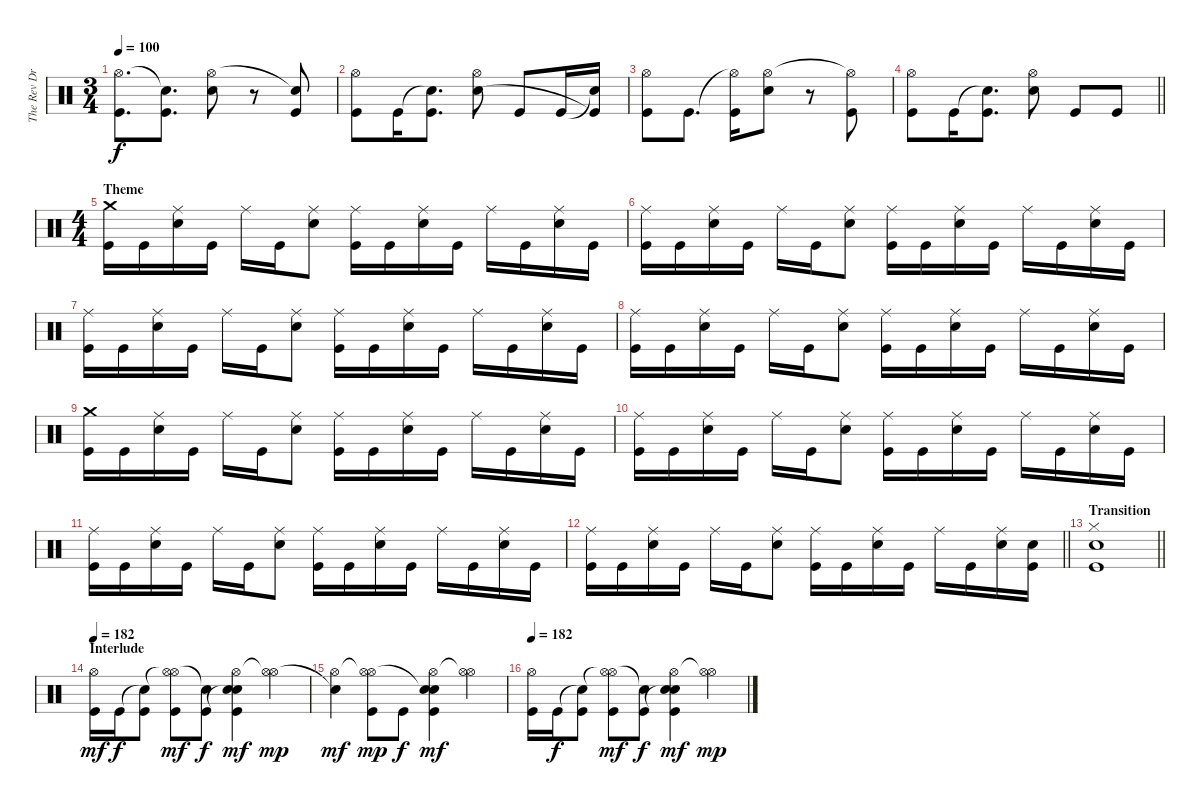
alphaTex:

\track ("The Rev Drums" "The Rev Dr") {instrument percussion}
\staff {score}
\articulation defaults
\ts (3 4)
\tempo 100
\clef neutral
\ks c
("Hi-Hat (open)" "Kick (hit)").8{d dy f} ("Snare (hit)"{t} "Kick (hit)").8{d} ("Hi-Hat (open)" "Electric Snare (hit)").8 r.8 ("Snare (hit)"{t} "Kick (hit)").8 |
("Hi-Hat (open)" "Kick (hit)").8 "Kick (hit)".16 ("Snare (hit)"{t} "Kick (hit)").8{d} ("Hi-Hat (open)" "Electric Snare (hit)").8 "Kick (hit)".8 "Kick (hit)".16 ("Snare (hit)"{t} "Kick (hit)"{t}).16 |
("Hi-Hat (open)" "Kick (hit)").8 "Kick (hit)".8{d} ("Hi-Hat (open)"{t} "Kick (hit)").16 ("Hi-Hat (open)" "Electric Snare (hit)").8 r.8 ("Hi-Hat (open)"{t} "Kick (hit)").8 |
\barLineRight lightlight
("Hi-Hat (open)" "Kick (hit)").8 "Kick (hit)".16 ("Snare (hit)"{t} "Kick (hit)").8{d} ("Hi-Hat (open)" "Electric Snare (hit)").8 "Kick (hit)".8 "Kick (hit)".8 |
\ts (4 4)
\section ("" "Theme")
("Crash medium (hit)" "Kick (hit)").16 "Kick (hit)".16 ("Ride (middle)" "Electric Snare (hit)").16 "Kick (hit)".16 "Ride (middle)".16 "Kick (hit)".16 ("Ride (middle)" "Electric Snare (hit)").8 ("Ride (middle)" "Kick (hit)").16 "Kick (hit)".16 ("Ride (middle)" "Electric Snare (hit)").16 "Kick (hit)".16 "Ride (middle)".16 "Kick (hit)".16 ("Ride (middle)" "Electric Snare (hit)").16 "Kick (hit)".16 |
("Ride (middle)" "Kick (hit)").16 "Kick (hit)".16 ("Ride (middle)" "Electric Snare (hit)").16 "Kick (hit)".16 "Ride (middle)".16 "Kick (hit)".16 ("Ride (middle)" "Electric Snare (hit)").8 ("Ride (middle)" "Kick (hit)").16 "Kick (hit)".16 ("Ride (middle)" "Electric Snare (hit)").16 "Kick (hit)".16 "Ride (middle)".16 "Kick (hit)".16 ("Ride (middle)" "Electric Snare (hit)").16 "Kick (hit)".16 |
("Ride (middle)" "Kick (hit)").16 "Kick (hit)".16 ("Ride (middle)" "Electric Snare (hit)").16 "Kick (hit)".16 "Ride (middle)".16 "Kick (hit)".16 ("Ride (middle)" "Electric Snare (hit)").8 ("Ride (middle)" "Kick (hit)").16 "Kick (hit)".16 ("Ride (middle)" "Electric Snare (hit)").16 "Kick (hit)".16 "Ride (middle)".16 "Kick (hit)".16 ("Ride (middle)" "Electric Snare (hit)").16 "Kick (hit)".16 |
("Ride (middle)" "Kick (hit)").16 "Kick (hit)".16 ("Ride (middle)" "Electric Snare (hit)").16 "Kick (hit)".16 "Ride (middle)".16 "Kick (hit)".16 ("Ride (middle)" "Electric Snare (hit)").8 ("Ride (middle)" "Kick (hit)").16 "Kick (hit)".16 ("Ride (middle)" "Electric Snare (hit)").16 "Kick (hit)".16 "Ride (middle)".16 "Kick (hit)".16 ("Ride (middle)" "Electric Snare (hit)").16 "Kick (hit)".16 |
("Crash medium (hit)" "Kick (hit)").16 "Kick (hit)".16 ("Ride (middle)" "Electric Snare (hit)").16 "Kick (hit)".16 "Ride (middle)".16 "Kick (hit)".16 ("Ride (middle)" "Electric Snare (hit)").8 ("Ride (middle)" "Kick (hit)").16 "Kick (hit)".16 ("Ride (middle)" "Electric Snare (hit)").16 "Kick (hit)".16 "Ride (middle)".16 "Kick (hit)".16 ("Ride (middle)" "Electric Snare (hit)").16 "Kick (hit)".16 |
("Ride (middle)" "Kick (hit)").16 "Kick (hit)".16 ("Ride (middle)" "Electric Snare (hit)").16 "Kick (hit)".16 "Ride (middle)".16 "Kick (hit)".16 ("Ride (middle)" "Electric Snare (hit)").8 ("Ride (middle)" "Kick (hit)").16 "Kick (hit)".16 ("Ride (middle)" "Electric Snare (hit)").16 "Kick (hit)".16 "Ride (middle)".16 "Kick (hit)".16 ("Ride (middle)" "Electric Snare (hit)").16 "Kick (hit)".16 |
("Ride (middle)" "Kick (hit)").16 "Kick (hit)".16 ("Ride (middle)" "Electric Snare (hit)").16 "Kick (hit)".16 "Ride (middle)".16 "Kick (hit)".16 ("Ride (middle)" "Electric Snare (hit)").8 ("Ride (middle)" "Kick (hit)").16 "Kick (hit)".16 ("Ride (middle)" "Electric Snare (hit)").16 "Kick (hit)".16 "Ride (middle)".16 "Kick (hit)".16 ("Ride (middle)" "Electric Snare (hit)").16 "Kick (hit)".16 |
\barLineRight lightlight
("Ride (middle)" "Kick (hit)").16 "Kick (hit)".16 ("Ride (middle)" "Electric Snare (hit)").16 "Kick (hit)".16 "Ride (middle)".16 "Kick (hit)".16 ("Ride (middle)" "Electric Snare (hit)").8 ("Ride (middle)" "Kick (hit)").16 "Kick (hit)".16 ("Ride (middle)" "Electric Snare (hit)").16 "Kick (hit)".16 "Ride (middle)".16 "Kick (hit)".16 ("Ride (middle)" "Electric Snare (hit)").16 ("Electric Snare (hit)" "Kick (hit)").16 |
\section ("" "Transition")
\barLineRight lightlight
("Hi-Hat (closed)" "Electric Snare (hit)" "Kick (hit)").1 |
\section ("" "Interlude")
\tempo 182
("Hi-Hat (open)" "Kick (hit)").16{dy mf} "Kick (hit)".16{dy f} ("Snare (hit)"{t} "Kick (hit)").8 ("Hi-Hat (open)"{t} "Hi-Hat (open)" "Kick (hit)").8{dy mf} ("Snare (hit)"{t} "Kick (hit)").8{dy f} ("Hi-Hat (open)" "Snare (hit)"{t} "Electric Snare (hit)" "Kick (hit)").4{dy mf} ("Hi-Hat (open)"{t} "Hi-Hat (open)").4{dy mp} |
("Hi-Hat (open)" "Snare (hit)"{t}).4{dy mf} ("Hi-Hat (open)"{t} "Hi-Hat (open)" "Kick (hit)").8{dy mp} "Kick (hit)".8{dy f} ("Hi-Hat (open)" "Snare (hit)"{t} "Electric Snare (hit)" "Kick (hit)").4{dy mf} ("Hi-Hat (open)"{t} "Hi-Hat (open)").4 |
\tempo 182
("Hi-Hat (open)" "Kick (hit)").16 "Kick (hit)".16{dy f} ("Snare (hit)"{t} "Kick (hit)").8 ("Hi-Hat (open)"{t} "Hi-Hat (open)" "Kick (hit)").8{dy mf} ("Snare (hit)"{t} "Kick (hit)").8{dy f} ("Hi-Hat (open)" "Snare (hit)"{t} "Electric Snare (hit)" "Kick (hit)").4{dy mf} ("Hi-Hat (open)"{t} "Hi-Hat (open)").4{dy mp}
